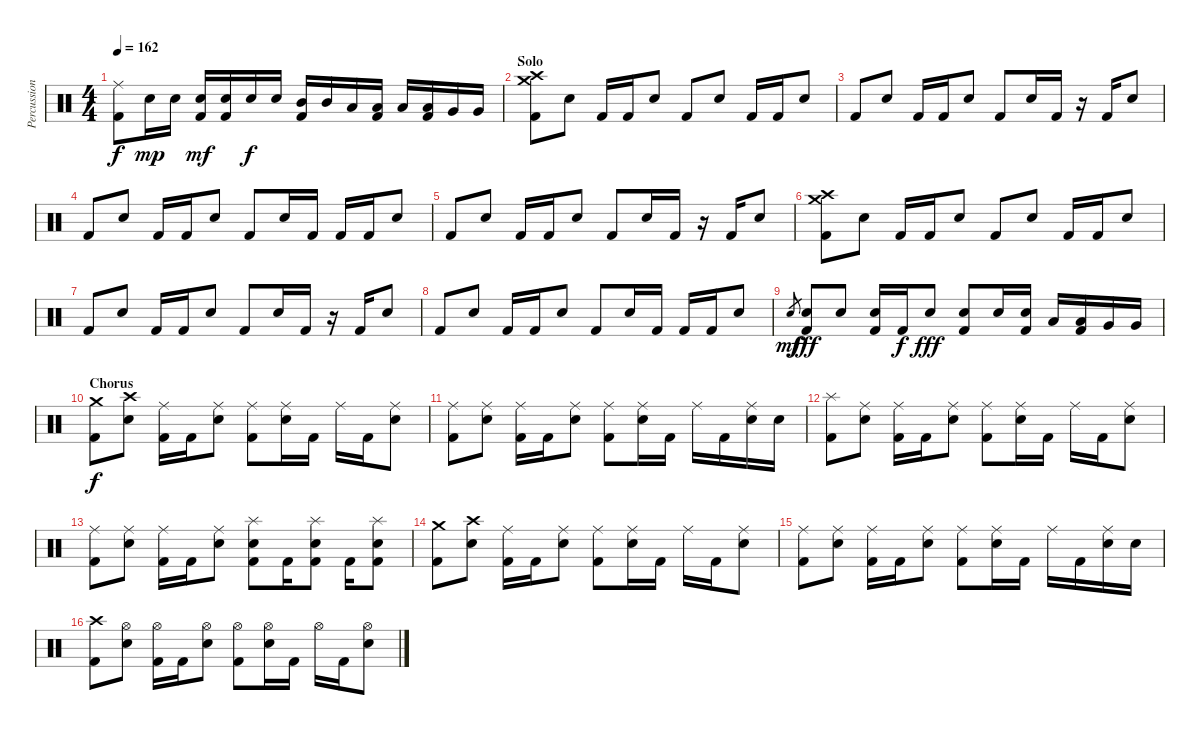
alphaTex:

\track ("Percussion" "Percussion") {instrument percussion}
\staff {score}
\articulation defaults
\ts (4 4)
\tempo 162
\clef neutral
\ks c
("Ride (middle)" "Kick (hit) 2").8{dy f} "Electric Snare (hit)".16{dy mp} "Electric Snare (hit)".16 ("Electric Snare (hit)" "Kick (hit) 2").16{dy mf} ("Electric Snare (hit)" "Kick (hit) 2").16 "Electric Snare (hit)".16{dy f} "Electric Snare (hit)".16 ("Mid Tom (hit)" "Kick (hit) 2").16 "Mid Tom (hit)".16 "Low Tom (hit)".16 ("Low Tom (hit)" "Kick (hit) 2").16 "Low Tom (hit)".16 ("Low Tom (hit)" "Kick (hit) 2").16 "Very Low Tom (hit)".16 "Very Low Tom (hit)".16 |
\section ("" "Solo")
("Crash medium (hit)" "Crash high (hit)" "Kick (hit) 2").8 "Electric Snare (hit)".8 "Kick (hit) 2".16 "Kick (hit) 2".16 "Electric Snare (hit)".8 "Kick (hit) 2".8 "Electric Snare (hit)".8 "Kick (hit) 2".16 "Kick (hit) 2".16 "Electric Snare (hit)".8 |
"Kick (hit) 2".8 "Electric Snare (hit)".8 "Kick (hit) 2".16 "Kick (hit) 2".16 "Electric Snare (hit)".8 "Kick (hit) 2".8 "Electric Snare (hit)".16 "Kick (hit) 2".16 r.16 "Kick (hit) 2".16 "Electric Snare (hit)".8 |
"Kick (hit) 2".8 "Electric Snare (hit)".8 "Kick (hit) 2".16 "Kick (hit) 2".16 "Electric Snare (hit)".8 "Kick (hit) 2".8 "Electric Snare (hit)".16 "Kick (hit) 2".16 "Kick (hit) 2".16 "Kick (hit) 2".16 "Electric Snare (hit)".8 |
"Kick (hit) 2".8 "Electric Snare (hit)".8 "Kick (hit) 2".16 "Kick (hit) 2".16 "Electric Snare (hit)".8 "Kick (hit) 2".8 "Electric Snare (hit)".16 "Kick (hit) 2".16 r.16 "Kick (hit) 2".16 "Electric Snare (hit)".8 |
("Crash medium (hit)" "Crash high (hit)" "Kick (hit) 2").8 "Electric Snare (hit)".8 "Kick (hit) 2".16 "Kick (hit) 2".16 "Electric Snare (hit)".8 "Kick (hit) 2".8 "Electric Snare (hit)".8 "Kick (hit) 2".16 "Kick (hit) 2".16 "Electric Snare (hit)".8 |
"Kick (hit) 2".8 "Electric Snare (hit)".8 "Kick (hit) 2".16 "Kick (hit) 2".16 "Electric Snare (hit)".8 "Kick (hit) 2".8 "Electric Snare (hit)".16 "Kick (hit) 2".16 r.16 "Kick (hit) 2".16 "Electric Snare (hit)".8 |
"Kick (hit) 2".8 "Electric Snare (hit)".8 "Kick (hit) 2".16 "Kick (hit) 2".16 "Electric Snare (hit)".8 "Kick (hit) 2".8 "Electric Snare (hit)".16 "Kick (hit) 2".16 "Kick (hit) 2".16 "Kick (hit) 2".16 "Electric Snare (hit)".8 |
"Electric Snare (hit)".8{gr dy mf} ("Electric Snare (hit)" "Kick (hit) 2").8{dy fff} "Electric Snare (hit)".8 ("Electric Snare (hit)" "Kick (hit) 2").16 "Kick (hit) 2".16{dy f} "Electric Snare (hit)".8{dy fff} ("Electric Snare (hit)" "Kick (hit) 2").8 "Electric Snare (hit)".16 ("Electric Snare (hit)" "Kick (hit) 2").16 "Low Tom (hit)".16 ("Low Tom (hit)" "Kick (hit) 2").16 "Very Low Tom (hit)".16 "Very Low Tom (hit)".16 |
\section ("" "Chorus")
("Crash medium (hit)" "Kick (hit) 2").8{dy f} ("Crash high (hit)" "Electric Snare (hit)").8 ("Ride (middle)" "Kick (hit) 2").16 "Kick (hit) 2".16 ("Ride (middle)" "Electric Snare (hit)").8 ("Ride (middle)" "Kick (hit) 2").8 ("Ride (middle)" "Electric Snare (hit)").16 "Kick (hit) 2".16 "Ride (middle)".16 "Kick (hit) 2".16 ("Ride (middle)" "Electric Snare (hit)").8 |
("Ride (middle)" "Kick (hit) 2").8 ("Ride (middle)" "Electric Snare (hit)").8 ("Ride (middle)" "Kick (hit) 2").16 "Kick (hit) 2".16 ("Ride (middle)" "Electric Snare (hit)").8 ("Ride (middle)" "Kick (hit) 2").8 ("Ride (middle)" "Electric Snare (hit)").16 "Kick (hit) 2".16 "Ride (middle)".16 "Kick (hit) 2".16 ("Ride (middle)" "Electric Snare (hit)").16 "Electric Snare (hit)".16 |
("Splash (hit)" "Kick (hit) 2").8 ("Ride (middle)" "Electric Snare (hit)").8 ("Ride (middle)" "Kick (hit) 2").16 "Kick (hit) 2".16 ("Ride (middle)" "Electric Snare (hit)").8 ("Ride (middle)" "Kick (hit) 2").8 ("Ride (middle)" "Electric Snare (hit)").16 "Kick (hit) 2".16 "Ride (middle)".16 "Kick (hit) 2".16 ("Ride (middle)" "Electric Snare (hit)").8 |
("Ride (middle)" "Kick (hit) 2").8 ("Ride (middle)" "Electric Snare (hit)").8 ("Ride (middle)" "Kick (hit) 2").16 "Kick (hit) 2".16 ("Ride (middle)" "Electric Snare (hit)").8 ("Splash (hit)" "Electric Snare (hit)" "Kick (hit) 2").8 "Kick (hit) 2".16 ("Splash (hit)" "Electric Snare (hit)" "Kick (hit) 2").8 "Kick (hit) 2".16 ("Splash (hit)" "Electric Snare (hit)" "Kick (hit) 2").8 |
("Crash medium (hit)" "Kick (hit) 2").8 ("Crash high (hit)" "Electric Snare (hit)").8 ("Ride (middle)" "Kick (hit) 2").16 "Kick (hit) 2".16 ("Ride (middle)" "Electric Snare (hit)").8 ("Ride (middle)" "Kick (hit) 2").8 ("Ride (middle)" "Electric Snare (hit)").16 "Kick (hit) 2".16 "Ride (middle)".16 "Kick (hit) 2".16 ("Ride (middle)" "Electric Snare (hit)").8 |
("Ride (middle)" "Kick (hit) 2").8 ("Ride (middle)" "Electric Snare (hit)").8 ("Ride (middle)" "Kick (hit) 2").16 "Kick (hit) 2".16 ("Ride (middle)" "Electric Snare (hit)").8 ("Ride (middle)" "Kick (hit) 2").8 ("Ride (middle)" "Electric Snare (hit)").16 "Kick (hit) 2".16 "Ride (middle)".16 "Kick (hit) 2".16 ("Ride (middle)" "Electric Snare (hit)").16 "Electric Snare (hit)".16 |
("Crash high (hit)" "Kick (hit) 2").8 ("Hi-Hat (open)" "Electric Snare (hit)").8 ("Hi-Hat (open)" "Kick (hit) 2").16 "Kick (hit) 2".16 ("Hi-Hat (open)" "Electric Snare (hit)").8 ("Hi-Hat (open)" "Kick (hit) 2").8 ("Hi-Hat (open)" "Electric Snare (hit)").16 "Kick (hit) 2".16 "Hi-Hat (open)".16 "Kick (hit) 2".16 ("Hi-Hat (open)" "Electric Snare (hit)").8
